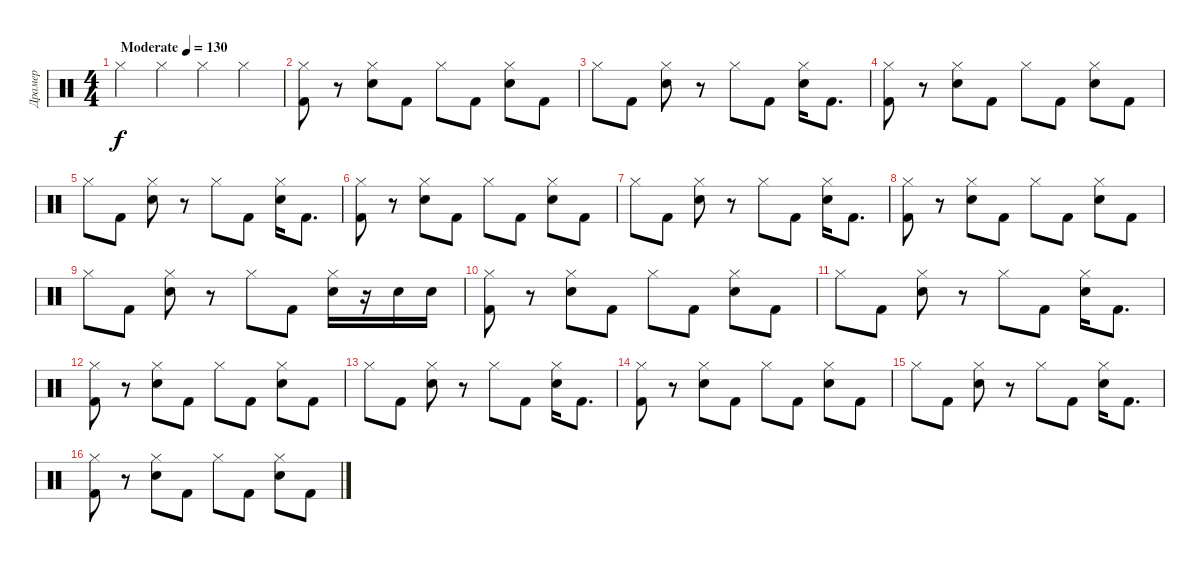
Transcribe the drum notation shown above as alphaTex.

\track ("Драмер" "Драмер") {instrument percussion}
\staff {score}
\articulation defaults
\ts (4 4)
\tempo (130 "Moderate")
\clef neutral
\ks c "Hi-Hat (closed)".4{dy f} "Hi-Hat (closed)".4 "Hi-Hat (closed)".4 "Hi-Hat (closed)".4
|
("Hi-Hat (closed)" "Kick (hit) 2").8 r.8 ("Hi-Hat (closed)" "Electric Snare (hit)").8 "Kick (hit) 2".8 "Hi-Hat (closed)".8 "Kick (hit) 2".8 ("Hi-Hat (closed)" "Electric Snare (hit)").8 "Kick (hit) 2".8 |
"Hi-Hat (closed)".8 "Kick (hit) 2".8 ("Hi-Hat (closed)" "Electric Snare (hit)").8 r.8 "Hi-Hat (closed)".8 "Kick (hit) 2".8 ("Hi-Hat (closed)" "Electric Snare (hit)").16 "Kick (hit) 2".8{d} |
("Hi-Hat (closed)" "Kick (hit) 2").8 r.8 ("Hi-Hat (closed)" "Electric Snare (hit)").8 "Kick (hit) 2".8 "Hi-Hat (closed)".8 "Kick (hit) 2".8 ("Hi-Hat (closed)" "Electric Snare (hit)").8 "Kick (hit) 2".8 |
"Hi-Hat (closed)".8 "Kick (hit) 2".8 ("Hi-Hat (closed)" "Electric Snare (hit)").8 r.8 "Hi-Hat (closed)".8 "Kick (hit) 2".8 ("Hi-Hat (closed)" "Electric Snare (hit)").16 "Kick (hit) 2".8{d} |
("Hi-Hat (closed)" "Kick (hit) 2").8 r.8 ("Hi-Hat (closed)" "Electric Snare (hit)").8 "Kick (hit) 2".8 "Hi-Hat (closed)".8 "Kick (hit) 2".8 ("Hi-Hat (closed)" "Electric Snare (hit)").8 "Kick (hit) 2".8 |
"Hi-Hat (closed)".8 "Kick (hit) 2".8 ("Hi-Hat (closed)" "Electric Snare (hit)").8 r.8 "Hi-Hat (closed)".8 "Kick (hit) 2".8 ("Hi-Hat (closed)" "Electric Snare (hit)").16 "Kick (hit) 2".8{d} |
("Hi-Hat (closed)" "Kick (hit) 2").8 r.8 ("Hi-Hat (closed)" "Electric Snare (hit)").8 "Kick (hit) 2".8 "Hi-Hat (closed)".8 "Kick (hit) 2".8 ("Hi-Hat (closed)" "Electric Snare (hit)").8 "Kick (hit) 2".8 |
"Hi-Hat (closed)".8 "Kick (hit) 2".8 ("Hi-Hat (closed)" "Electric Snare (hit)").8 r.8 "Hi-Hat (closed)".8 "Kick (hit) 2".8 ("Hi-Hat (closed)" "Electric Snare (hit)").16 r.16 "Electric Snare (hit)".16 "Electric Snare (hit)".16 |
("Hi-Hat (closed)" "Kick (hit) 2").8 r.8 ("Hi-Hat (closed)" "Electric Snare (hit)").8 "Kick (hit) 2".8 "Hi-Hat (closed)".8 "Kick (hit) 2".8 ("Hi-Hat (closed)" "Electric Snare (hit)").8 "Kick (hit) 2".8 |
"Hi-Hat (closed)".8 "Kick (hit) 2".8 ("Hi-Hat (closed)" "Electric Snare (hit)").8 r.8 "Hi-Hat (closed)".8 "Kick (hit) 2".8 ("Hi-Hat (closed)" "Electric Snare (hit)").16 "Kick (hit) 2".8{d} |
("Hi-Hat (closed)" "Kick (hit) 2").8 r.8 ("Hi-Hat (closed)" "Electric Snare (hit)").8 "Kick (hit) 2".8 "Hi-Hat (closed)".8 "Kick (hit) 2".8 ("Hi-Hat (closed)" "Electric Snare (hit)").8 "Kick (hit) 2".8 |
"Hi-Hat (closed)".8 "Kick (hit) 2".8 ("Hi-Hat (closed)" "Electric Snare (hit)").8 r.8 "Hi-Hat (closed)".8 "Kick (hit) 2".8 ("Hi-Hat (closed)" "Electric Snare (hit)").16 "Kick (hit) 2".8{d} |
("Hi-Hat (closed)" "Kick (hit) 2").8 r.8 ("Hi-Hat (closed)" "Electric Snare (hit)").8 "Kick (hit) 2".8 "Hi-Hat (closed)".8 "Kick (hit) 2".8 ("Hi-Hat (closed)" "Electric Snare (hit)").8 "Kick (hit) 2".8 |
"Hi-Hat (closed)".8 "Kick (hit) 2".8 ("Hi-Hat (closed)" "Electric Snare (hit)").8 r.8 "Hi-Hat (closed)".8 "Kick (hit) 2".8 ("Hi-Hat (closed)" "Electric Snare (hit)").16 "Kick (hit) 2".8{d} |
("Hi-Hat (closed)" "Kick (hit) 2").8 r.8 ("Hi-Hat (closed)" "Electric Snare (hit)").8 "Kick (hit) 2".8 "Hi-Hat (closed)".8 "Kick (hit) 2".8 ("Hi-Hat (closed)" "Electric Snare (hit)").8 "Kick (hit) 2".8
